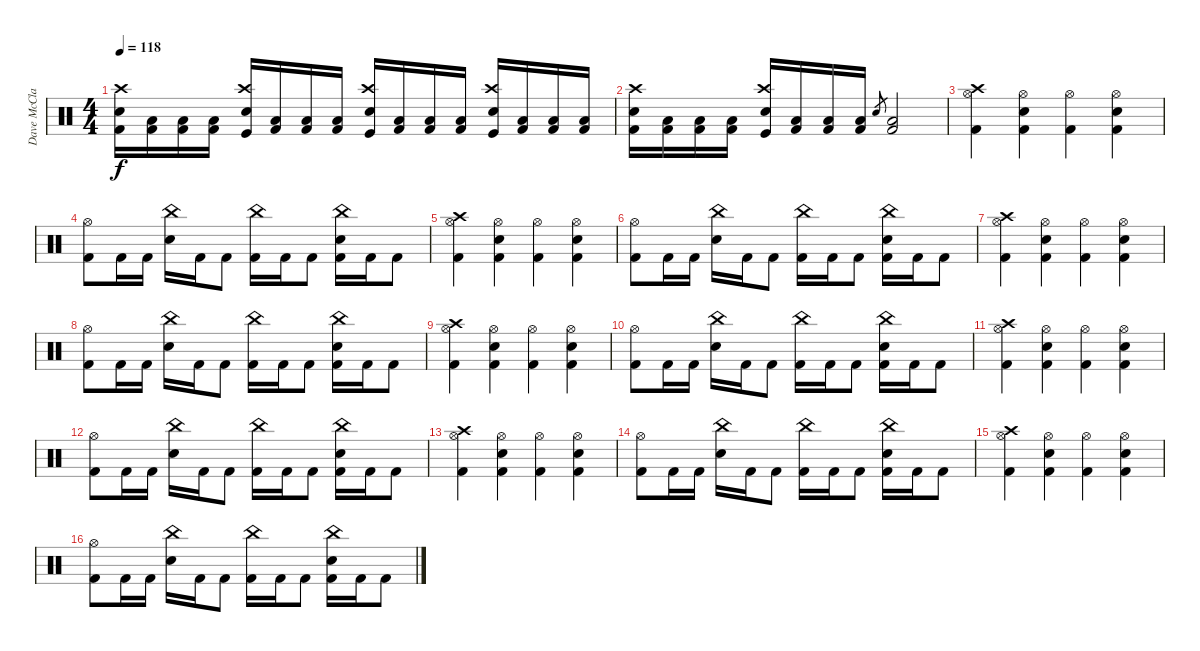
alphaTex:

\track ("Dave McClain" "Dave McCla") {instrument percussion}
\staff {score}
\articulation defaults
\ts (4 4)
\tempo 118
\clef neutral
\ks c
("Kick (hit) 2" "Snare (hit) 2" "Crash high (hit)").16{dy f} ("Kick (hit) 2" "Low Floor Tom (hit)").16 ("Kick (hit) 2" "Low Floor Tom (hit)").16 ("Kick (hit) 2" "Low Floor Tom (hit)").16 ("Kick (hit)" "Snare (hit) 2" "Crash high (hit)").16 ("Kick (hit) 2" "Low Floor Tom (hit)").16 ("Kick (hit) 2" "Low Floor Tom (hit)").16 ("Kick (hit) 2" "Low Floor Tom (hit)").16 ("Kick (hit)" "Snare (hit) 2" "Crash high (hit)").16 ("Kick (hit) 2" "Low Floor Tom (hit)").16 ("Kick (hit) 2" "Low Floor Tom (hit)").16 ("Kick (hit) 2" "Low Floor Tom (hit)").16 ("Kick (hit)" "Snare (hit) 2" "Crash high (hit)").16 ("Kick (hit) 2" "Low Floor Tom (hit)").16 ("Kick (hit) 2" "Low Floor Tom (hit)").16 ("Kick (hit) 2" "Low Floor Tom (hit)").16 |
("Kick (hit) 2" "Snare (hit) 2" "Crash high (hit)").16 ("Kick (hit) 2" "Low Floor Tom (hit)").16 ("Kick (hit) 2" "Low Floor Tom (hit)").16 ("Kick (hit) 2" "Low Floor Tom (hit)").16 ("Kick (hit)" "Snare (hit) 2" "Crash high (hit)").16 ("Kick (hit) 2" "Low Floor Tom (hit)").16 ("Kick (hit) 2" "Low Floor Tom (hit)").16 ("Kick (hit) 2" "Low Floor Tom (hit)").16 "Snare (hit) 2".8{gr} ("Kick (hit) 2" "Low Floor Tom (hit)").2 |
("Kick (hit) 2" "Hi-Hat (open)" "Crash high (hit)").4 ("Kick (hit) 2" "Snare (hit) 2" "Hi-Hat (open)").4 ("Kick (hit) 2" "Hi-Hat (open)").4 ("Kick (hit) 2" "Snare (hit) 2" "Hi-Hat (open)").4 |
("Kick (hit) 2" "Hi-Hat (open)").8 "Kick (hit) 2".16 "Kick (hit) 2".16 ("Snare (hit) 2" "China (hit)").16 "Kick (hit) 2".16 "Kick (hit) 2".8 ("Kick (hit) 2" "China (hit)").16 "Kick (hit) 2".16 "Kick (hit) 2".8 ("Kick (hit) 2" "Snare (hit) 2" "China (hit)").16 "Kick (hit) 2".16 "Kick (hit) 2".8 |
("Kick (hit) 2" "Hi-Hat (open)" "Crash high (hit)").4 ("Kick (hit) 2" "Snare (hit) 2" "Hi-Hat (open)").4 ("Kick (hit) 2" "Hi-Hat (open)").4 ("Kick (hit) 2" "Snare (hit) 2" "Hi-Hat (open)").4 |
("Kick (hit) 2" "Hi-Hat (open)").8 "Kick (hit) 2".16 "Kick (hit) 2".16 ("Snare (hit) 2" "China (hit)").16 "Kick (hit) 2".16 "Kick (hit) 2".8 ("Kick (hit) 2" "China (hit)").16 "Kick (hit) 2".16 "Kick (hit) 2".8 ("Kick (hit) 2" "Snare (hit) 2" "China (hit)").16 "Kick (hit) 2".16 "Kick (hit) 2".8 |
("Kick (hit) 2" "Hi-Hat (open)" "Crash high (hit)").4 ("Kick (hit) 2" "Snare (hit) 2" "Hi-Hat (open)").4 ("Kick (hit) 2" "Hi-Hat (open)").4 ("Kick (hit) 2" "Snare (hit) 2" "Hi-Hat (open)").4 |
("Kick (hit) 2" "Hi-Hat (open)").8 "Kick (hit) 2".16 "Kick (hit) 2".16 ("Snare (hit) 2" "China (hit)").16 "Kick (hit) 2".16 "Kick (hit) 2".8 ("Kick (hit) 2" "China (hit)").16 "Kick (hit) 2".16 "Kick (hit) 2".8 ("Kick (hit) 2" "Snare (hit) 2" "China (hit)").16 "Kick (hit) 2".16 "Kick (hit) 2".8 |
("Kick (hit) 2" "Hi-Hat (open)" "Crash high (hit)").4 ("Kick (hit) 2" "Snare (hit) 2" "Hi-Hat (open)").4 ("Kick (hit) 2" "Hi-Hat (open)").4 ("Kick (hit) 2" "Snare (hit) 2" "Hi-Hat (open)").4 |
("Kick (hit) 2" "Hi-Hat (open)").8 "Kick (hit) 2".16 "Kick (hit) 2".16 ("Snare (hit) 2" "China (hit)").16 "Kick (hit) 2".16 "Kick (hit) 2".8 ("Kick (hit) 2" "China (hit)").16 "Kick (hit) 2".16 "Kick (hit) 2".8 ("Kick (hit) 2" "Snare (hit) 2" "China (hit)").16 "Kick (hit) 2".16 "Kick (hit) 2".8 |
("Kick (hit) 2" "Hi-Hat (open)" "Crash high (hit)").4 ("Kick (hit) 2" "Snare (hit) 2" "Hi-Hat (open)").4 ("Kick (hit) 2" "Hi-Hat (open)").4 ("Kick (hit) 2" "Snare (hit) 2" "Hi-Hat (open)").4 |
("Kick (hit) 2" "Hi-Hat (open)").8 "Kick (hit) 2".16 "Kick (hit) 2".16 ("Snare (hit) 2" "China (hit)").16 "Kick (hit) 2".16 "Kick (hit) 2".8 ("Kick (hit) 2" "China (hit)").16 "Kick (hit) 2".16 "Kick (hit) 2".8 ("Kick (hit) 2" "Snare (hit) 2" "China (hit)").16 "Kick (hit) 2".16 "Kick (hit) 2".8 |
("Kick (hit) 2" "Hi-Hat (open)" "Crash high (hit)").4 ("Kick (hit) 2" "Snare (hit) 2" "Hi-Hat (open)").4 ("Kick (hit) 2" "Hi-Hat (open)").4 ("Kick (hit) 2" "Snare (hit) 2" "Hi-Hat (open)").4 |
("Kick (hit) 2" "Hi-Hat (open)").8 "Kick (hit) 2".16 "Kick (hit) 2".16 ("Snare (hit) 2" "China (hit)").16 "Kick (hit) 2".16 "Kick (hit) 2".8 ("Kick (hit) 2" "China (hit)").16 "Kick (hit) 2".16 "Kick (hit) 2".8 ("Kick (hit) 2" "Snare (hit) 2" "China (hit)").16 "Kick (hit) 2".16 "Kick (hit) 2".8 |
("Kick (hit) 2" "Hi-Hat (open)" "Crash high (hit)").4 ("Kick (hit) 2" "Snare (hit) 2" "Hi-Hat (open)").4 ("Kick (hit) 2" "Hi-Hat (open)").4 ("Kick (hit) 2" "Snare (hit) 2" "Hi-Hat (open)").4 |
("Kick (hit) 2" "Hi-Hat (open)").8 "Kick (hit) 2".16 "Kick (hit) 2".16 ("Snare (hit) 2" "China (hit)").16 "Kick (hit) 2".16 "Kick (hit) 2".8 ("Kick (hit) 2" "China (hit)").16 "Kick (hit) 2".16 "Kick (hit) 2".8 ("Kick (hit) 2" "Snare (hit) 2" "China (hit)").16 "Kick (hit) 2".16 "Kick (hit) 2".8
